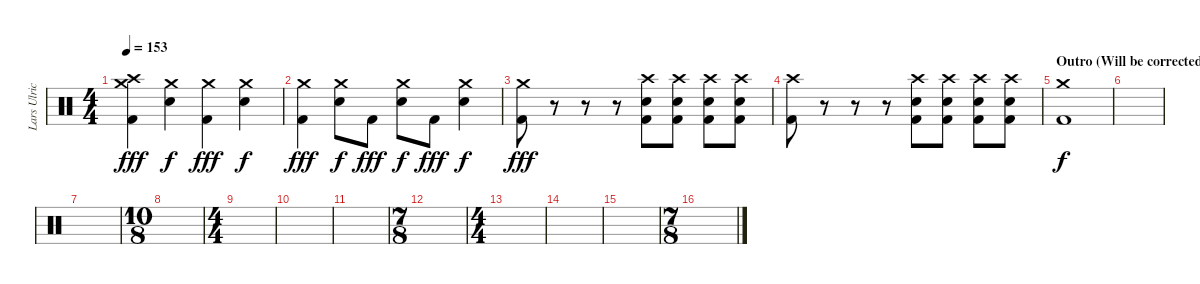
\track ("Lars Ulrich (Drums)" "Lars Ulric") {instrument percussion}
\staff {score}
\articulation defaults
\ts (4 4)
\tempo 153
\clef neutral
\ks c
("Crash medium (hit)" "Crash high (hit)" "Kick (hit) 2").4{dy fff} ("Crash medium (hit)" "Electric Snare (hit)").4{dy f} ("Crash medium (hit)" "Kick (hit) 2").4{dy fff} ("Crash medium (hit)" "Electric Snare (hit)").4{dy f} |
("Crash medium (hit)" "Kick (hit) 2").4{dy fff} ("Crash medium (hit)" "Electric Snare (hit)").8{dy f} "Kick (hit) 2".8{dy fff} ("Crash medium (hit)" "Electric Snare (hit)").8{dy f} "Kick (hit) 2".8{dy fff} ("Crash medium (hit)" "Electric Snare (hit)").4{dy f} |
("Crash medium (hit)" "Kick (hit) 2").8{dy fff} r.8 r.8 r.8 ("Crash high (hit)" "Electric Snare (hit)" "Kick (hit) 2").8 ("Crash high (hit)" "Electric Snare (hit)" "Kick (hit) 2").8 ("Crash high (hit)" "Electric Snare (hit)" "Kick (hit) 2").8 ("Crash high (hit)" "Electric Snare (hit)" "Kick (hit) 2").8 |
("Crash high (hit)" "Kick (hit) 2").8 r.8 r.8 r.8 ("Crash high (hit)" "Electric Snare (hit)" "Kick (hit) 2").8 ("Crash high (hit)" "Electric Snare (hit)" "Kick (hit) 2").8 ("Crash high (hit)" "Electric Snare (hit)" "Kick (hit) 2").8 ("Crash high (hit)" "Electric Snare (hit)" "Kick (hit) 2").8 |
\section ("" "Outro (Will be corrected next time)")
("Crash medium (hit)" "Kick (hit) 2").1{dy f} |
|
|
\ts (10 8)
|
\ts (4 4)
|
|
|
\ts (7 8)
|
\ts (4 4)
|
|
|
\ts (7 8)
